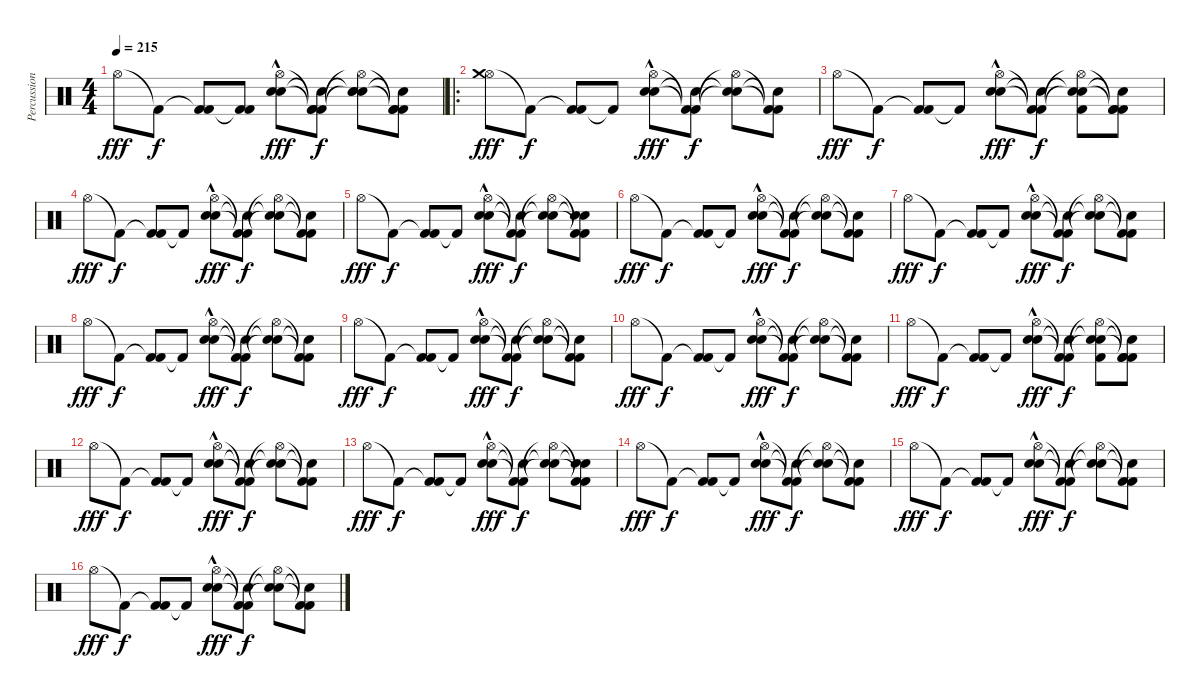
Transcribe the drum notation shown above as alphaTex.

\track ("Percussion" "Percussion") {instrument percussion}
\staff {score}
\articulation defaults
\ts (4 4)
\tempo 215
\clef neutral
\ks c "Hi-Hat (open)".8{dy fff} "Kick (hit) 2"{t}.8{dy f}
("Kick (hit) 2"{t} "Kick (hit) 2").8 ("Kick (hit) 2"{t} "Kick (hit) 2").8 ("Snare (hit) 2"{hac} "Hi-Hat (open)"{hac} "Electric Snare (hit)").8{dy fff} ("Kick (hit) 2"{t} "Kick (hit) 2"{t} "Snare (hit)"{t} "Kick (hit) 2").8{dy f} ("Snare (hit)"{t} "Hi-Hat (open)"{t} "Snare (hit)"{t} "Electric Snare (hit)").8 ("Kick (hit) 2"{t} "Kick (hit) 2"{t} "Snare (hit)"{t} "Kick (hit) 2").8 |
\ro
("Hi-Hat (open)" "Crash medium (hit)").8{dy fff} "Kick (hit) 2"{t}.8{dy f} ("Kick (hit) 2"{t} "Kick (hit) 2").8 "Kick (hit) 2"{t}.8 ("Snare (hit) 2"{hac} "Hi-Hat (open)"{hac} "Electric Snare (hit)").8{dy fff} ("Kick (hit) 2"{t} "Kick (hit) 2"{t} "Snare (hit)"{t}).8{dy f} ("Snare (hit)"{t} "Hi-Hat (open)"{t} "Snare (hit)"{t}).8 ("Kick (hit) 2"{t} "Kick (hit) 2"{t} "Snare (hit)"{t}).8 |
"Hi-Hat (open)".8{dy fff} "Kick (hit) 2"{t}.8{dy f} ("Kick (hit) 2"{t} "Kick (hit) 2").8 "Kick (hit) 2"{t}.8 ("Snare (hit) 2"{hac} "Hi-Hat (open)"{hac} "Electric Snare (hit)").8{dy fff} ("Kick (hit) 2"{t} "Kick (hit) 2"{t} "Snare (hit)"{t}).8{dy f} ("Snare (hit)"{t} "Hi-Hat (open)"{t} "Snare (hit)"{t} "Kick (hit) 2").8 ("Kick (hit) 2"{t} "Kick (hit) 2"{t} "Snare (hit)"{t} "Kick (hit) 2").8 |
"Hi-Hat (open)".8{dy fff} "Kick (hit) 2"{t}.8{dy f} ("Kick (hit) 2"{t} "Kick (hit) 2").8 "Kick (hit) 2"{t}.8 ("Snare (hit) 2"{hac} "Hi-Hat (open)"{hac} "Electric Snare (hit)").8{dy fff} ("Kick (hit) 2"{t} "Kick (hit) 2"{t} "Snare (hit)"{t}).8{dy f} ("Snare (hit)"{t} "Hi-Hat (open)"{t} "Snare (hit)"{t}).8 ("Kick (hit) 2"{t} "Kick (hit) 2"{t} "Snare (hit)"{t}).8 |
"Hi-Hat (open)".8{dy fff} "Kick (hit) 2"{t}.8{dy f} ("Kick (hit) 2"{t} "Kick (hit) 2").8 "Kick (hit) 2"{t}.8 ("Snare (hit) 2"{hac} "Hi-Hat (open)"{hac} "Electric Snare (hit)").8{dy fff} ("Kick (hit) 2"{t} "Kick (hit) 2"{t} "Snare (hit)"{t}).8{dy f} ("Snare (hit)"{t} "Hi-Hat (open)"{t} "Snare (hit)"{t}).8 ("Kick (hit) 2"{t} "Kick (hit) 2"{t} "Snare (hit)"{t} "Electric Snare (hit)").8 |
"Hi-Hat (open)".8{dy fff} "Kick (hit) 2"{t}.8{dy f} ("Kick (hit) 2"{t} "Kick (hit) 2").8 "Kick (hit) 2"{t}.8 ("Snare (hit) 2"{hac} "Hi-Hat (open)"{hac} "Electric Snare (hit)").8{dy fff} ("Kick (hit) 2"{t} "Kick (hit) 2"{t} "Snare (hit)"{t}).8{dy f} ("Snare (hit)"{t} "Hi-Hat (open)"{t} "Snare (hit)"{t}).8 ("Kick (hit) 2"{t} "Kick (hit) 2"{t} "Snare (hit)"{t}).8 |
"Hi-Hat (open)".8{dy fff} "Kick (hit) 2"{t}.8{dy f} ("Kick (hit) 2"{t} "Kick (hit) 2").8 "Kick (hit) 2"{t}.8 ("Snare (hit) 2"{hac} "Hi-Hat (open)"{hac} "Electric Snare (hit)").8{dy fff} ("Kick (hit) 2"{t} "Kick (hit) 2"{t} "Snare (hit)"{t}).8{dy f} ("Snare (hit)"{t} "Hi-Hat (open)"{t} "Snare (hit)"{t}).8 ("Kick (hit) 2"{t} "Kick (hit) 2"{t} "Snare (hit)"{t}).8 |
"Hi-Hat (open)".8{dy fff} "Kick (hit) 2"{t}.8{dy f} ("Kick (hit) 2"{t} "Kick (hit) 2").8 "Kick (hit) 2"{t}.8 ("Snare (hit) 2"{hac} "Hi-Hat (open)"{hac} "Electric Snare (hit)").8{dy fff} ("Kick (hit) 2"{t} "Kick (hit) 2"{t} "Snare (hit)"{t}).8{dy f} ("Snare (hit)"{t} "Hi-Hat (open)"{t} "Snare (hit)"{t}).8 ("Kick (hit) 2"{t} "Kick (hit) 2"{t} "Snare (hit)"{t}).8 |
"Hi-Hat (open)".8{dy fff} "Kick (hit) 2"{t}.8{dy f} ("Kick (hit) 2"{t} "Kick (hit) 2").8 "Kick (hit) 2"{t}.8 ("Snare (hit) 2"{hac} "Hi-Hat (open)"{hac} "Electric Snare (hit)").8{dy fff} ("Kick (hit) 2"{t} "Kick (hit) 2"{t} "Snare (hit)"{t}).8{dy f} ("Snare (hit)"{t} "Hi-Hat (open)"{t} "Snare (hit)"{t}).8 ("Kick (hit) 2"{t} "Kick (hit) 2"{t} "Snare (hit)"{t}).8 |
"Hi-Hat (open)".8{dy fff} "Kick (hit) 2"{t}.8{dy f} ("Kick (hit) 2"{t} "Kick (hit) 2").8 "Kick (hit) 2"{t}.8 ("Snare (hit) 2"{hac} "Hi-Hat (open)"{hac} "Electric Snare (hit)").8{dy fff} ("Kick (hit) 2"{t} "Kick (hit) 2"{t} "Snare (hit)"{t}).8{dy f} ("Snare (hit)"{t} "Hi-Hat (open)"{t} "Snare (hit)"{t}).8 ("Kick (hit) 2"{t} "Kick (hit) 2"{t} "Snare (hit)"{t}).8 |
"Hi-Hat (open)".8{dy fff} "Kick (hit) 2"{t}.8{dy f} ("Kick (hit) 2"{t} "Kick (hit) 2").8 "Kick (hit) 2"{t}.8 ("Snare (hit) 2"{hac} "Hi-Hat (open)"{hac} "Electric Snare (hit)").8{dy fff} ("Kick (hit) 2"{t} "Kick (hit) 2"{t} "Snare (hit)"{t}).8{dy f} ("Snare (hit)"{t} "Hi-Hat (open)"{t} "Snare (hit)"{t} "Kick (hit) 2").8 ("Kick (hit) 2"{t} "Kick (hit) 2"{t} "Snare (hit)"{t} "Kick (hit) 2").8 |
"Hi-Hat (open)".8{dy fff} "Kick (hit) 2"{t}.8{dy f} ("Kick (hit) 2"{t} "Kick (hit) 2").8 "Kick (hit) 2"{t}.8 ("Snare (hit) 2"{hac} "Hi-Hat (open)"{hac} "Electric Snare (hit)").8{dy fff} ("Kick (hit) 2"{t} "Kick (hit) 2"{t} "Snare (hit)"{t}).8{dy f} ("Snare (hit)"{t} "Hi-Hat (open)"{t} "Snare (hit)"{t}).8 ("Kick (hit) 2"{t} "Kick (hit) 2"{t} "Snare (hit)"{t}).8 |
"Hi-Hat (open)".8{dy fff} "Kick (hit) 2"{t}.8{dy f} ("Kick (hit) 2"{t} "Kick (hit) 2").8 "Kick (hit) 2"{t}.8 ("Snare (hit) 2"{hac} "Hi-Hat (open)"{hac} "Electric Snare (hit)").8{dy fff} ("Kick (hit) 2"{t} "Kick (hit) 2"{t} "Snare (hit)"{t}).8{dy f} ("Snare (hit)"{t} "Hi-Hat (open)"{t} "Snare (hit)"{t}).8 ("Kick (hit) 2"{t} "Kick (hit) 2"{t} "Snare (hit)"{t} "Electric Snare (hit)").8 |
"Hi-Hat (open)".8{dy fff} "Kick (hit) 2"{t}.8{dy f} ("Kick (hit) 2"{t} "Kick (hit) 2").8 "Kick (hit) 2"{t}.8 ("Snare (hit) 2"{hac} "Hi-Hat (open)"{hac} "Electric Snare (hit)").8{dy fff} ("Kick (hit) 2"{t} "Kick (hit) 2"{t} "Snare (hit)"{t}).8{dy f} ("Snare (hit)"{t} "Hi-Hat (open)"{t} "Snare (hit)"{t}).8 ("Kick (hit) 2"{t} "Kick (hit) 2"{t} "Snare (hit)"{t}).8 |
"Hi-Hat (open)".8{dy fff} "Kick (hit) 2"{t}.8{dy f} ("Kick (hit) 2"{t} "Kick (hit) 2").8 "Kick (hit) 2"{t}.8 ("Snare (hit) 2"{hac} "Hi-Hat (open)"{hac} "Electric Snare (hit)").8{dy fff} ("Kick (hit) 2"{t} "Kick (hit) 2"{t} "Snare (hit)"{t}).8{dy f} ("Snare (hit)"{t} "Hi-Hat (open)"{t} "Snare (hit)"{t}).8 ("Kick (hit) 2"{t} "Kick (hit) 2"{t} "Snare (hit)"{t}).8 |
"Hi-Hat (open)".8{dy fff} "Kick (hit) 2"{t}.8{dy f} ("Kick (hit) 2"{t} "Kick (hit) 2").8 "Kick (hit) 2"{t}.8 ("Snare (hit) 2"{hac} "Hi-Hat (open)"{hac} "Electric Snare (hit)").8{dy fff} ("Kick (hit) 2"{t} "Kick (hit) 2"{t} "Snare (hit)"{t}).8{dy f} ("Snare (hit)"{t} "Hi-Hat (open)"{t} "Snare (hit)"{t}).8 ("Kick (hit) 2"{t} "Kick (hit) 2"{t} "Snare (hit)"{t}).8
